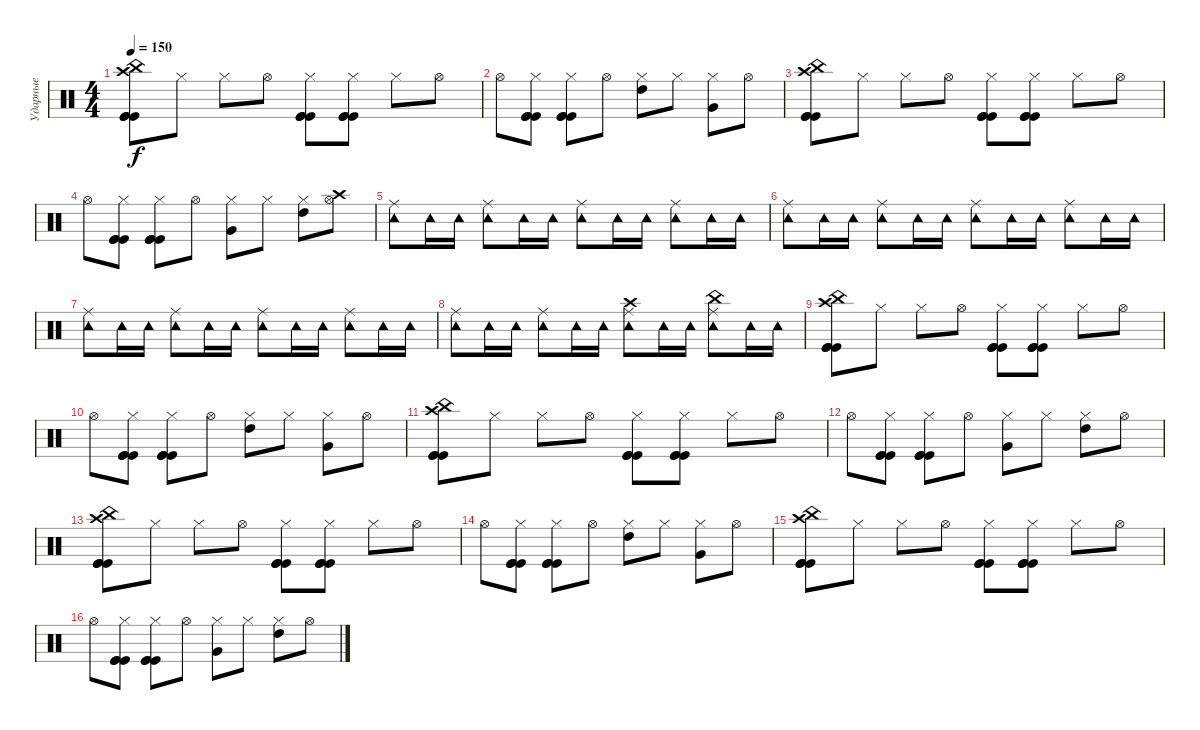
\track ("Ударные" "Ударные") {instrument percussion}
\staff {score}
\articulation defaults
\ts (4 4)
\tempo 150
\clef neutral
\ks c
("Crash high (hit)" "China (hit)" "Kick (hit)" "Kick (hit)" "Kick (hit)").8{dy f} "Hi-Hat (closed)".8 "Hi-Hat (closed)".8 "Hi-Hat (open)".8 ("Hi-Hat (closed)" "Kick (hit)" "Kick (hit)" "Kick (hit)").8 ("Hi-Hat (closed)" "Kick (hit)" "Kick (hit)" "Kick (hit)").8 "Hi-Hat (closed)".8 "Hi-Hat (open)".8 |
"Hi-Hat (open)".8 ("Hi-Hat (closed)" "Kick (hit)" "Kick (hit)" "Kick (hit)").8 ("Hi-Hat (closed)" "Kick (hit)" "Kick (hit)" "Kick (hit)").8 "Hi-Hat (open)".8 ("Hi-Hat (closed)" "High Tom (hit)").8 "Hi-Hat (closed)".8 ("Hi-Hat (closed)" "Very Low Tom (hit)").8 "Hi-Hat (open)".8 |
("Crash high (hit)" "China (hit)" "Kick (hit)" "Kick (hit)" "Kick (hit)").8 "Hi-Hat (closed)".8 "Hi-Hat (closed)".8 "Hi-Hat (open)".8 ("Hi-Hat (closed)" "Kick (hit)" "Kick (hit)" "Kick (hit)").8 ("Hi-Hat (closed)" "Kick (hit)" "Kick (hit)" "Kick (hit)").8 "Hi-Hat (closed)".8 "Hi-Hat (open)".8 |
"Hi-Hat (open)".8 ("Hi-Hat (closed)" "Kick (hit)" "Kick (hit)" "Kick (hit)").8 ("Hi-Hat (closed)" "Kick (hit)" "Kick (hit)" "Kick (hit)").8 "Hi-Hat (open)".8 ("Hi-Hat (closed)" "Very Low Tom (hit)").8 "Hi-Hat (closed)".8 ("Hi-Hat (closed)" "High Tom (hit)").8 ("Crash high (hit)" "Hi-Hat (open)").8 |
("Ride (middle)" "Tambourine (hit)").8 "Tambourine (hit)".16 "Tambourine (hit)".16 ("Ride (middle)" "Tambourine (hit)").8 "Tambourine (hit)".16 "Tambourine (hit)".16 ("Ride (middle)" "Tambourine (hit)").8 "Tambourine (hit)".16 "Tambourine (hit)".16 ("Ride (middle)" "Tambourine (hit)").8 "Tambourine (hit)".16 "Tambourine (hit)".16 |
("Ride (middle)" "Tambourine (hit)").8 "Tambourine (hit)".16 "Tambourine (hit)".16 ("Ride (middle)" "Tambourine (hit)").8 "Tambourine (hit)".16 "Tambourine (hit)".16 ("Ride (middle)" "Tambourine (hit)").8 "Tambourine (hit)".16 "Tambourine (hit)".16 ("Ride (middle)" "Tambourine (hit)").8 "Tambourine (hit)".16 "Tambourine (hit)".16 |
("Ride (middle)" "Tambourine (hit)").8 "Tambourine (hit)".16 "Tambourine (hit)".16 ("Ride (middle)" "Tambourine (hit)").8 "Tambourine (hit)".16 "Tambourine (hit)".16 ("Ride (middle)" "Tambourine (hit)").8 "Tambourine (hit)".16 "Tambourine (hit)".16 ("Ride (middle)" "Tambourine (hit)").8 "Tambourine (hit)".16 "Tambourine (hit)".16 |
("Ride (middle)" "Tambourine (hit)").8 "Tambourine (hit)".16 "Tambourine (hit)".16 ("Ride (middle)" "Tambourine (hit)").8 "Tambourine (hit)".16 "Tambourine (hit)".16 ("Crash high (hit)" "Ride (middle)" "Tambourine (hit)").8 "Tambourine (hit)".16 "Tambourine (hit)".16 ("China (hit)" "Ride (middle)" "Tambourine (hit)").8 "Tambourine (hit)".16 "Tambourine (hit)".16 |
("Crash high (hit)" "China (hit)" "Kick (hit)" "Kick (hit)" "Kick (hit)").8 "Hi-Hat (closed)".8 "Hi-Hat (closed)".8 "Hi-Hat (open)".8 ("Hi-Hat (closed)" "Kick (hit)" "Kick (hit)" "Kick (hit)").8 ("Hi-Hat (closed)" "Kick (hit)" "Kick (hit)" "Kick (hit)").8 "Hi-Hat (closed)".8 "Hi-Hat (open)".8 |
"Hi-Hat (open)".8 ("Hi-Hat (closed)" "Kick (hit)" "Kick (hit)" "Kick (hit)").8 ("Hi-Hat (closed)" "Kick (hit)" "Kick (hit)" "Kick (hit)").8 "Hi-Hat (open)".8 ("Hi-Hat (closed)" "High Tom (hit)").8 "Hi-Hat (closed)".8 ("Hi-Hat (closed)" "Very Low Tom (hit)").8 "Hi-Hat (open)".8 |
("Crash high (hit)" "China (hit)" "Kick (hit)" "Kick (hit)" "Kick (hit)").8 "Hi-Hat (closed)".8 "Hi-Hat (closed)".8 "Hi-Hat (open)".8 ("Hi-Hat (closed)" "Kick (hit)" "Kick (hit)" "Kick (hit)").8 ("Hi-Hat (closed)" "Kick (hit)" "Kick (hit)" "Kick (hit)").8 "Hi-Hat (closed)".8 "Hi-Hat (open)".8 |
"Hi-Hat (open)".8 ("Hi-Hat (closed)" "Kick (hit)" "Kick (hit)" "Kick (hit)").8 ("Hi-Hat (closed)" "Kick (hit)" "Kick (hit)" "Kick (hit)").8 "Hi-Hat (open)".8 ("Hi-Hat (closed)" "Very Low Tom (hit)").8 "Hi-Hat (closed)".8 ("Hi-Hat (closed)" "High Tom (hit)").8 "Hi-Hat (open)".8 |
("Crash high (hit)" "China (hit)" "Kick (hit)" "Kick (hit)" "Kick (hit)").8 "Hi-Hat (closed)".8 "Hi-Hat (closed)".8 "Hi-Hat (open)".8 ("Hi-Hat (closed)" "Kick (hit)" "Kick (hit)" "Kick (hit)").8 ("Hi-Hat (closed)" "Kick (hit)" "Kick (hit)" "Kick (hit)").8 "Hi-Hat (closed)".8 "Hi-Hat (open)".8 |
"Hi-Hat (open)".8 ("Hi-Hat (closed)" "Kick (hit)" "Kick (hit)" "Kick (hit)").8 ("Hi-Hat (closed)" "Kick (hit)" "Kick (hit)" "Kick (hit)").8 "Hi-Hat (open)".8 ("Hi-Hat (closed)" "High Tom (hit)").8 "Hi-Hat (closed)".8 ("Hi-Hat (closed)" "Very Low Tom (hit)").8 "Hi-Hat (open)".8 |
("Crash high (hit)" "China (hit)" "Kick (hit)" "Kick (hit)" "Kick (hit)").8 "Hi-Hat (closed)".8 "Hi-Hat (closed)".8 "Hi-Hat (open)".8 ("Hi-Hat (closed)" "Kick (hit)" "Kick (hit)" "Kick (hit)").8 ("Hi-Hat (closed)" "Kick (hit)" "Kick (hit)" "Kick (hit)").8 "Hi-Hat (closed)".8 "Hi-Hat (open)".8 |
"Hi-Hat (open)".8 ("Hi-Hat (closed)" "Kick (hit)" "Kick (hit)" "Kick (hit)").8 ("Hi-Hat (closed)" "Kick (hit)" "Kick (hit)" "Kick (hit)").8 "Hi-Hat (open)".8 ("Hi-Hat (closed)" "Very Low Tom (hit)").8 "Hi-Hat (closed)".8 ("Hi-Hat (closed)" "High Tom (hit)").8 "Hi-Hat (open)".8
